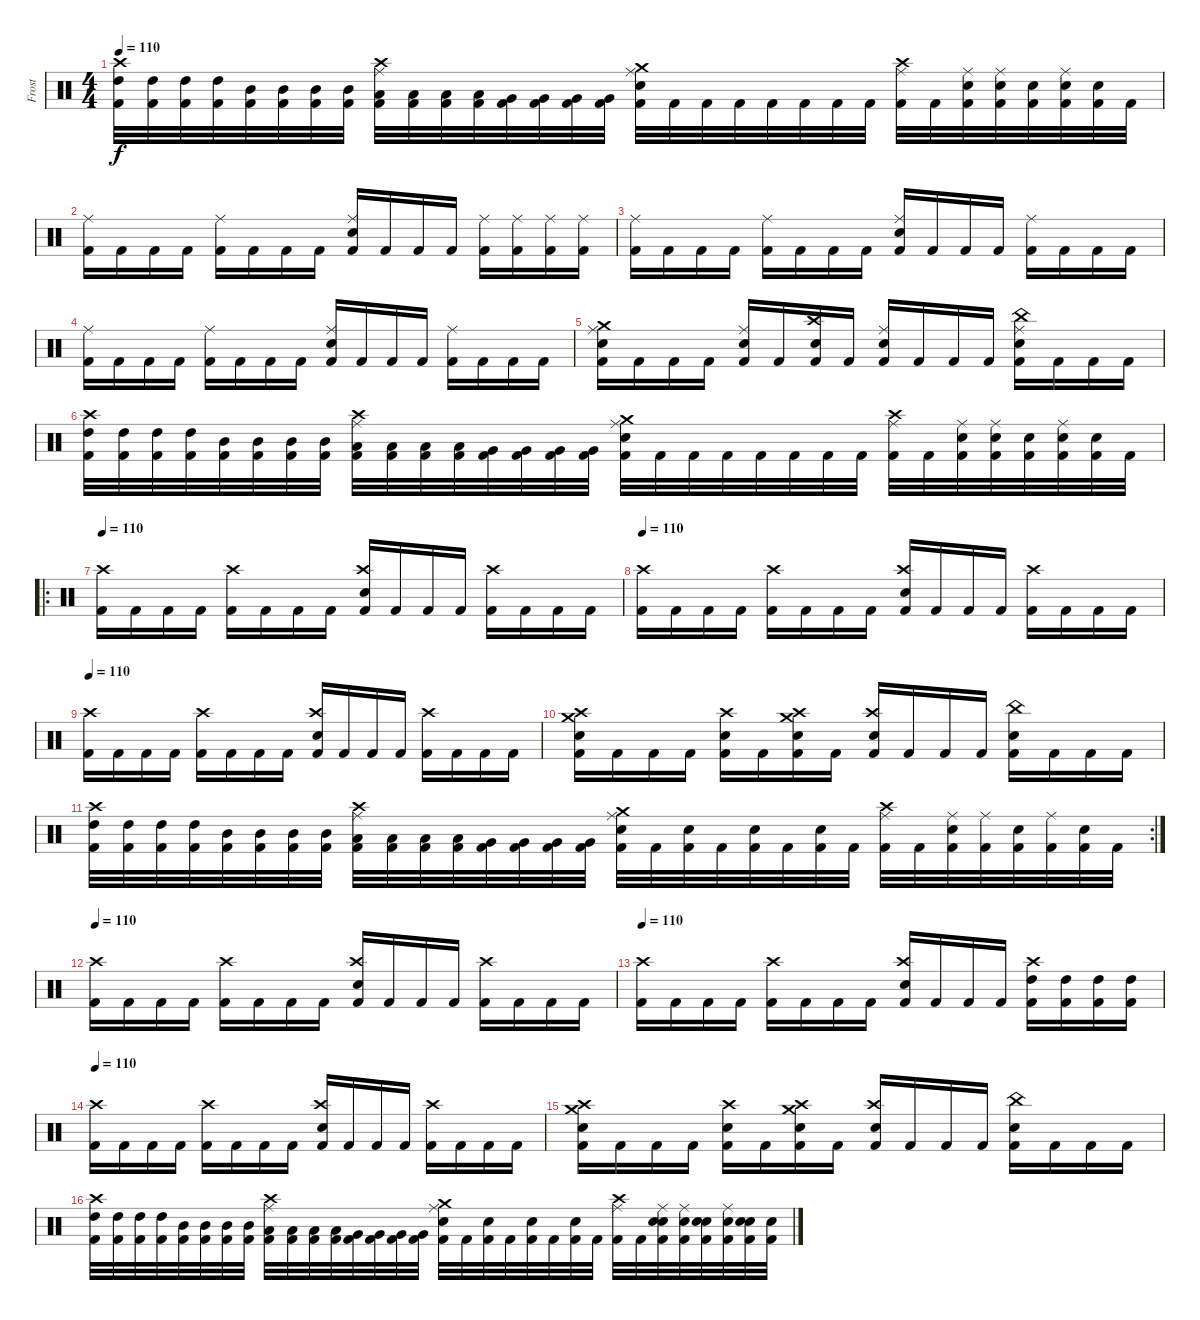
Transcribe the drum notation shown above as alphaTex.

\track ("Frost" "Frost") {instrument percussion}
\staff {score}
\articulation defaults
\ts (4 4)
\tempo 110
\clef neutral
\ks c
("Kick (hit) 2" "High Tom (hit)" "Crash high (hit)").32{dy f} ("Kick (hit) 2" "High Tom (hit)").32 ("Kick (hit) 2" "High Tom (hit)").32 ("Kick (hit) 2" "High Tom (hit)").32 ("Kick (hit) 2" "Mid Tom (hit)").32 ("Kick (hit) 2" "Mid Tom (hit)").32 ("Kick (hit) 2" "Mid Tom (hit)").32 ("Kick (hit) 2" "Mid Tom (hit)").32 ("Kick (hit) 2" "Low Tom (hit)" "Ride (middle)" "Crash high (hit)").32 ("Kick (hit) 2" "Low Tom (hit)").32 ("Kick (hit) 2" "Low Tom (hit)").32 ("Kick (hit) 2" "Low Tom (hit)").32 ("Kick (hit) 2" "Very Low Tom (hit)").32 ("Kick (hit) 2" "Very Low Tom (hit)").32 ("Kick (hit) 2" "Very Low Tom (hit)").32 ("Kick (hit) 2" "Very Low Tom (hit)").32 ("Kick (hit) 2" "Electric Snare (hit)" "Ride (middle)" "Crash medium (hit)").32 "Kick (hit) 2".32 "Kick (hit) 2".32 "Kick (hit) 2".32 "Kick (hit) 2".32 "Kick (hit) 2".32 "Kick (hit) 2".32 "Kick (hit) 2".32 ("Kick (hit) 2" "Ride (middle)" "Crash high (hit)").32 "Kick (hit) 2".32 ("Kick (hit) 2" "Electric Snare (hit)" "Ride (middle)").32 ("Kick (hit) 2" "Electric Snare (hit)" "Ride (middle)").32 ("Kick (hit) 2" "Electric Snare (hit)").32 ("Kick (hit) 2" "Electric Snare (hit)" "Ride (middle)").32 ("Kick (hit) 2" "Electric Snare (hit)").32 "Kick (hit) 2".32 |
("Kick (hit) 2" "Ride (middle)").16 "Kick (hit) 2".16 "Kick (hit) 2".16 "Kick (hit) 2".16 ("Kick (hit) 2" "Ride (middle)").16 "Kick (hit) 2".16 "Kick (hit) 2".16 "Kick (hit) 2".16 ("Kick (hit) 2" "Electric Snare (hit)" "Ride (middle)").16 "Kick (hit) 2".16 "Kick (hit) 2".16 "Kick (hit) 2".16 ("Kick (hit) 2" "Ride (middle)").16 ("Kick (hit) 2" "Ride (middle)").16 ("Kick (hit) 2" "Ride (middle)").16 ("Kick (hit) 2" "Ride (middle)").16 |
("Kick (hit) 2" "Ride (middle)").16 "Kick (hit) 2".16 "Kick (hit) 2".16 "Kick (hit) 2".16 ("Kick (hit) 2" "Ride (middle)").16 "Kick (hit) 2".16 "Kick (hit) 2".16 "Kick (hit) 2".16 ("Kick (hit) 2" "Electric Snare (hit)" "Ride (middle)").16 "Kick (hit) 2".16 "Kick (hit) 2".16 "Kick (hit) 2".16 ("Kick (hit) 2" "Ride (middle)").16 "Kick (hit) 2".16 "Kick (hit) 2".16 "Kick (hit) 2".16 |
("Kick (hit) 2" "Ride (middle)").16 "Kick (hit) 2".16 "Kick (hit) 2".16 "Kick (hit) 2".16 ("Kick (hit) 2" "Ride (middle)").16 "Kick (hit) 2".16 "Kick (hit) 2".16 "Kick (hit) 2".16 ("Kick (hit) 2" "Electric Snare (hit)" "Ride (middle)").16 "Kick (hit) 2".16 "Kick (hit) 2".16 "Kick (hit) 2".16 ("Kick (hit) 2" "Ride (middle)").16 "Kick (hit) 2".16 "Kick (hit) 2".16 "Kick (hit) 2".16 |
("Crash medium (hit)" "Kick (hit) 2" "Electric Snare (hit)" "Ride (middle)").16 "Kick (hit) 2".16 "Kick (hit) 2".16 "Kick (hit) 2".16 ("Kick (hit) 2" "Electric Snare (hit)" "Ride (middle)").16 "Kick (hit) 2".16 ("Crash high (hit)" "Kick (hit) 2" "Electric Snare (hit)").16 "Kick (hit) 2".16 ("Kick (hit) 2" "Electric Snare (hit)" "Ride (middle)").16 "Kick (hit) 2".16 "Kick (hit) 2".16 "Kick (hit) 2".16 ("China (hit)" "Kick (hit) 2" "Electric Snare (hit)" "Ride (middle)").16 "Kick (hit) 2".16 "Kick (hit) 2".16 "Kick (hit) 2".16 |
("Kick (hit) 2" "High Tom (hit)" "Crash high (hit)").32 ("Kick (hit) 2" "High Tom (hit)").32 ("Kick (hit) 2" "High Tom (hit)").32 ("Kick (hit) 2" "High Tom (hit)").32 ("Kick (hit) 2" "Mid Tom (hit)").32 ("Kick (hit) 2" "Mid Tom (hit)").32 ("Kick (hit) 2" "Mid Tom (hit)").32 ("Kick (hit) 2" "Mid Tom (hit)").32 ("Kick (hit) 2" "Low Tom (hit)" "Ride (middle)" "Crash high (hit)").32 ("Kick (hit) 2" "Low Tom (hit)").32 ("Kick (hit) 2" "Low Tom (hit)").32 ("Kick (hit) 2" "Low Tom (hit)").32 ("Kick (hit) 2" "Very Low Tom (hit)").32 ("Kick (hit) 2" "Very Low Tom (hit)").32 ("Kick (hit) 2" "Very Low Tom (hit)").32 ("Kick (hit) 2" "Very Low Tom (hit)").32 ("Kick (hit) 2" "Electric Snare (hit)" "Ride (middle)" "Crash medium (hit)").32 "Kick (hit) 2".32 "Kick (hit) 2".32 "Kick (hit) 2".32 "Kick (hit) 2".32 "Kick (hit) 2".32 "Kick (hit) 2".32 "Kick (hit) 2".32 ("Kick (hit) 2" "Ride (middle)" "Crash high (hit)").32 "Kick (hit) 2".32 ("Kick (hit) 2" "Electric Snare (hit)" "Ride (middle)").32 ("Kick (hit) 2" "Electric Snare (hit)" "Ride (middle)").32 ("Kick (hit) 2" "Electric Snare (hit)").32 ("Kick (hit) 2" "Electric Snare (hit)" "Ride (middle)").32 ("Kick (hit) 2" "Electric Snare (hit)").32 "Kick (hit) 2".32 |
\ro
\tempo 110
("Kick (hit) 2" "Crash high (hit)").16 "Kick (hit) 2".16 "Kick (hit) 2".16 "Kick (hit) 2".16 ("Kick (hit) 2" "Crash high (hit)").16 "Kick (hit) 2".16 "Kick (hit) 2".16 "Kick (hit) 2".16 ("Kick (hit) 2" "Electric Snare (hit)" "Crash high (hit)").16 "Kick (hit) 2".16 "Kick (hit) 2".16 "Kick (hit) 2".16 ("Kick (hit) 2" "Crash high (hit)").16 "Kick (hit) 2".16 "Kick (hit) 2".16 "Kick (hit) 2".16 |
\tempo 110
("Kick (hit) 2" "Crash high (hit)").16 "Kick (hit) 2".16 "Kick (hit) 2".16 "Kick (hit) 2".16 ("Kick (hit) 2" "Crash high (hit)").16 "Kick (hit) 2".16 "Kick (hit) 2".16 "Kick (hit) 2".16 ("Kick (hit) 2" "Electric Snare (hit)" "Crash high (hit)").16 "Kick (hit) 2".16 "Kick (hit) 2".16 "Kick (hit) 2".16 ("Kick (hit) 2" "Crash high (hit)").16 "Kick (hit) 2".16 "Kick (hit) 2".16 "Kick (hit) 2".16 |
\tempo 110
("Kick (hit) 2" "Crash high (hit)").16 "Kick (hit) 2".16 "Kick (hit) 2".16 "Kick (hit) 2".16 ("Kick (hit) 2" "Crash high (hit)").16 "Kick (hit) 2".16 "Kick (hit) 2".16 "Kick (hit) 2".16 ("Kick (hit) 2" "Electric Snare (hit)" "Crash high (hit)").16 "Kick (hit) 2".16 "Kick (hit) 2".16 "Kick (hit) 2".16 ("Kick (hit) 2" "Crash high (hit)").16 "Kick (hit) 2".16 "Kick (hit) 2".16 "Kick (hit) 2".16 |
("Crash medium (hit)" "Kick (hit) 2" "Electric Snare (hit)" "Crash high (hit)").16 "Kick (hit) 2".16 "Kick (hit) 2".16 "Kick (hit) 2".16 ("Kick (hit) 2" "Electric Snare (hit)" "Crash high (hit)").16 "Kick (hit) 2".16 ("Crash high (hit)" "Kick (hit) 2" "Electric Snare (hit)" "Crash medium (hit)").16 "Kick (hit) 2".16 ("Kick (hit) 2" "Electric Snare (hit)" "Crash high (hit)").16 "Kick (hit) 2".16 "Kick (hit) 2".16 "Kick (hit) 2".16 ("China (hit)" "Kick (hit) 2" "Electric Snare (hit)").16 "Kick (hit) 2".16 "Kick (hit) 2".16 "Kick (hit) 2".16 |
\rc 2
("Kick (hit) 2" "High Tom (hit)" "Crash high (hit)").32 ("Kick (hit) 2" "High Tom (hit)").32 ("Kick (hit) 2" "High Tom (hit)").32 ("Kick (hit) 2" "High Tom (hit)").32 ("Kick (hit) 2" "Mid Tom (hit)").32 ("Kick (hit) 2" "Mid Tom (hit)").32 ("Kick (hit) 2" "Mid Tom (hit)").32 ("Kick (hit) 2" "Mid Tom (hit)").32 ("Kick (hit) 2" "Low Tom (hit)" "Ride (middle)" "Crash high (hit)").32 ("Kick (hit) 2" "Low Tom (hit)").32 ("Kick (hit) 2" "Low Tom (hit)").32 ("Kick (hit) 2" "Low Tom (hit)").32 ("Kick (hit) 2" "Very Low Tom (hit)").32 ("Kick (hit) 2" "Very Low Tom (hit)").32 ("Kick (hit) 2" "Very Low Tom (hit)").32 ("Kick (hit) 2" "Very Low Tom (hit)").32 ("Kick (hit) 2" "Electric Snare (hit)" "Ride (middle)" "Crash medium (hit)").32 "Kick (hit) 2".32 ("Kick (hit) 2" "Electric Snare (hit)").32 "Kick (hit) 2".32 ("Kick (hit) 2" "Electric Snare (hit)").32 "Kick (hit) 2".32 ("Kick (hit) 2" "Snare (hit) 2").32 "Kick (hit) 2".32 ("Kick (hit) 2" "Ride (middle)" "Crash high (hit)").32 "Kick (hit) 2".32 ("Kick (hit) 2" "Electric Snare (hit)" "Ride (middle)").32 ("Kick (hit) 2" "Ride (middle)").32 ("Kick (hit) 2" "Electric Snare (hit)").32 ("Kick (hit) 2" "Ride (middle)").32 ("Kick (hit) 2" "Snare (hit) 2").32 "Kick (hit) 2".32 |
\tempo 110
("Kick (hit) 2" "Crash high (hit)").16 "Kick (hit) 2".16 "Kick (hit) 2".16 "Kick (hit) 2".16 ("Kick (hit) 2" "Crash high (hit)").16 "Kick (hit) 2".16 "Kick (hit) 2".16 "Kick (hit) 2".16 ("Kick (hit) 2" "Electric Snare (hit)" "Crash high (hit)").16 "Kick (hit) 2".16 "Kick (hit) 2".16 "Kick (hit) 2".16 ("Kick (hit) 2" "Crash high (hit)").16 "Kick (hit) 2".16 "Kick (hit) 2".16 "Kick (hit) 2".16 |
\tempo 110
("Kick (hit) 2" "Crash high (hit)").16 "Kick (hit) 2".16 "Kick (hit) 2".16 "Kick (hit) 2".16 ("Kick (hit) 2" "Crash high (hit)").16 "Kick (hit) 2".16 "Kick (hit) 2".16 "Kick (hit) 2".16 ("Kick (hit) 2" "Electric Snare (hit)" "Crash high (hit)").16 "Kick (hit) 2".16 "Kick (hit) 2".16 "Kick (hit) 2".16 ("Kick (hit) 2" "High Tom (hit)" "Crash high (hit)").16 ("Kick (hit) 2" "High Tom (hit)").16 ("Kick (hit) 2" "High Tom (hit)").16 ("Kick (hit) 2" "High Tom (hit)").16 |
\tempo 110
("Kick (hit) 2" "Crash high (hit)").16 "Kick (hit) 2".16 "Kick (hit) 2".16 "Kick (hit) 2".16 ("Kick (hit) 2" "Crash high (hit)").16 "Kick (hit) 2".16 "Kick (hit) 2".16 "Kick (hit) 2".16 ("Kick (hit) 2" "Electric Snare (hit)" "Crash high (hit)").16 "Kick (hit) 2".16 "Kick (hit) 2".16 "Kick (hit) 2".16 ("Kick (hit) 2" "Crash high (hit)").16 "Kick (hit) 2".16 "Kick (hit) 2".16 "Kick (hit) 2".16 |
("Crash medium (hit)" "Kick (hit) 2" "Electric Snare (hit)" "Crash high (hit)").16 "Kick (hit) 2".16 "Kick (hit) 2".16 "Kick (hit) 2".16 ("Kick (hit) 2" "Electric Snare (hit)" "Crash high (hit)").16 "Kick (hit) 2".16 ("Crash high (hit)" "Kick (hit) 2" "Electric Snare (hit)" "Crash medium (hit)").16 "Kick (hit) 2".16 ("Kick (hit) 2" "Electric Snare (hit)" "Crash high (hit)").16 "Kick (hit) 2".16 "Kick (hit) 2".16 "Kick (hit) 2".16 ("China (hit)" "Kick (hit) 2" "Electric Snare (hit)").16 "Kick (hit) 2".16 "Kick (hit) 2".16 "Kick (hit) 2".16 |
("Kick (hit) 2" "High Tom (hit)" "Crash high (hit)").32 ("Kick (hit) 2" "High Tom (hit)").32 ("Kick (hit) 2" "High Tom (hit)").32 ("Kick (hit) 2" "High Tom (hit)").32 ("Kick (hit) 2" "Mid Tom (hit)").32 ("Kick (hit) 2" "Mid Tom (hit)").32 ("Kick (hit) 2" "Mid Tom (hit)").32 ("Kick (hit) 2" "Mid Tom (hit)").32 ("Kick (hit) 2" "Low Tom (hit)" "Ride (middle)" "Crash high (hit)").32 ("Kick (hit) 2" "Low Tom (hit)").32 ("Kick (hit) 2" "Low Tom (hit)").32 ("Kick (hit) 2" "Low Tom (hit)").32 ("Kick (hit) 2" "Very Low Tom (hit)").32 ("Kick (hit) 2" "Very Low Tom (hit)").32 ("Kick (hit) 2" "Very Low Tom (hit)").32 ("Kick (hit) 2" "Very Low Tom (hit)").32 ("Kick (hit) 2" "Electric Snare (hit)" "Ride (middle)" "Crash medium (hit)").32 "Kick (hit) 2".32 ("Kick (hit) 2" "Electric Snare (hit)").32 "Kick (hit) 2".32 ("Kick (hit) 2" "Electric Snare (hit)").32 "Kick (hit) 2".32 ("Kick (hit) 2" "Snare (hit) 2").32 "Kick (hit) 2".32 ("Kick (hit) 2" "Ride (middle)" "Crash high (hit)").32 "Kick (hit) 2".32 ("Electric Snare (hit)" "Kick (hit) 2" "Electric Snare (hit)" "Ride (middle)").32 ("Electric Snare (hit)" "Kick (hit) 2" "Ride (middle)").32 ("Electric Snare (hit)" "Kick (hit) 2" "Electric Snare (hit)").32 ("Electric Snare (hit)" "Kick (hit) 2" "Ride (middle)").32 ("Electric Snare (hit)" "Kick (hit) 2" "Snare (hit) 2").32 ("Electric Snare (hit)" "Kick (hit) 2").32
